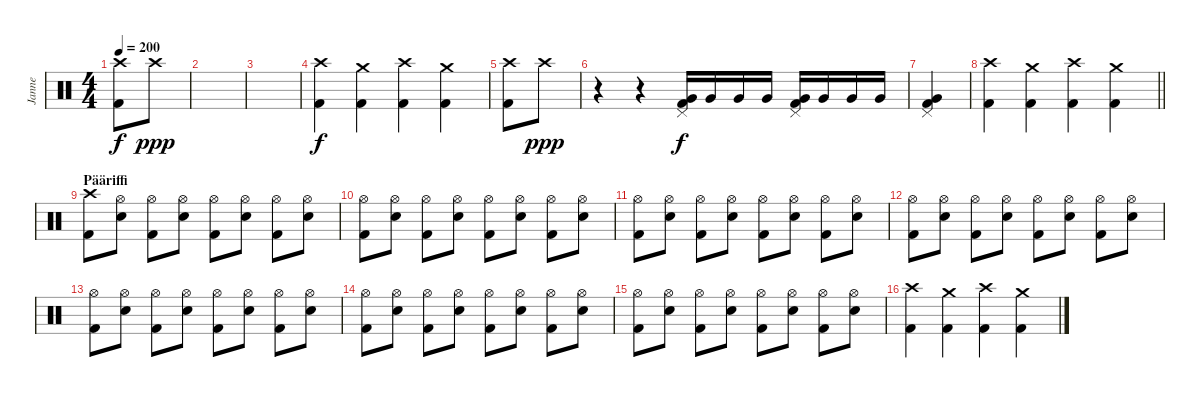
\track ("Janne" "Janne") {instrument percussion}
\staff {score}
\articulation defaults
\ts (4 4)
\tempo 200
\clef neutral
\ks c
("Crash high (hit)" "Kick (hit) 2").8{dy f} "Crash high (hit)".8{dy ppp} |
|
|
("Crash high (hit)" "Kick (hit) 2").4{dy f} ("Crash medium (hit)" "Kick (hit) 2").4 ("Crash high (hit)" "Kick (hit) 2").4 ("Crash medium (hit)" "Kick (hit) 2").4 |
("Crash high (hit)" "Kick (hit) 2").8 "Crash high (hit)".8{dy ppp} |
r.4 r.4 ("Pedal Hi-Hat (hit)" "Very Low Tom (hit)" "Kick (hit) 2").16{dy f} "Very Low Tom (hit)".16 "Very Low Tom (hit)".16 "Very Low Tom (hit)".16 ("Pedal Hi-Hat (hit)" "Very Low Tom (hit)" "Kick (hit) 2").16 "Very Low Tom (hit)".16 "Very Low Tom (hit)".16 "Very Low Tom (hit)".16 |
("Pedal Hi-Hat (hit)" "Very Low Tom (hit)" "Kick (hit) 2").4 |
\barLineRight lightlight
("Crash high (hit)" "Kick (hit) 2").4 ("Crash medium (hit)" "Kick (hit) 2").4 ("Crash high (hit)" "Kick (hit) 2").4 ("Crash medium (hit)" "Kick (hit) 2").4 |
\section ("" "Pääriffi")
("Crash high (hit)" "Kick (hit) 2").8 ("Hi-Hat (open)" "Electric Snare (hit)").8 ("Hi-Hat (open)" "Kick (hit) 2").8 ("Hi-Hat (open)" "Electric Snare (hit)").8 ("Hi-Hat (open)" "Kick (hit) 2").8 ("Hi-Hat (open)" "Electric Snare (hit)").8 ("Hi-Hat (open)" "Kick (hit) 2").8 ("Hi-Hat (open)" "Electric Snare (hit)").8 |
("Hi-Hat (open)" "Kick (hit) 2").8 ("Hi-Hat (open)" "Electric Snare (hit)").8 ("Hi-Hat (open)" "Kick (hit) 2").8 ("Hi-Hat (open)" "Electric Snare (hit)").8 ("Hi-Hat (open)" "Kick (hit) 2").8 ("Hi-Hat (open)" "Electric Snare (hit)").8 ("Hi-Hat (open)" "Kick (hit) 2").8 ("Hi-Hat (open)" "Electric Snare (hit)").8 |
("Hi-Hat (open)" "Kick (hit) 2").8 ("Hi-Hat (open)" "Electric Snare (hit)").8 ("Hi-Hat (open)" "Kick (hit) 2").8 ("Hi-Hat (open)" "Electric Snare (hit)").8 ("Hi-Hat (open)" "Kick (hit) 2").8 ("Hi-Hat (open)" "Electric Snare (hit)").8 ("Hi-Hat (open)" "Kick (hit) 2").8 ("Hi-Hat (open)" "Electric Snare (hit)").8 |
("Hi-Hat (open)" "Kick (hit) 2").8 ("Hi-Hat (open)" "Electric Snare (hit)").8 ("Hi-Hat (open)" "Kick (hit) 2").8 ("Hi-Hat (open)" "Electric Snare (hit)").8 ("Hi-Hat (open)" "Kick (hit) 2").8 ("Hi-Hat (open)" "Electric Snare (hit)").8 ("Hi-Hat (open)" "Kick (hit) 2").8 ("Hi-Hat (open)" "Electric Snare (hit)").8 |
("Hi-Hat (open)" "Kick (hit) 2").8 ("Hi-Hat (open)" "Electric Snare (hit)").8 ("Hi-Hat (open)" "Kick (hit) 2").8 ("Hi-Hat (open)" "Electric Snare (hit)").8 ("Hi-Hat (open)" "Kick (hit) 2").8 ("Hi-Hat (open)" "Electric Snare (hit)").8 ("Hi-Hat (open)" "Kick (hit) 2").8 ("Hi-Hat (open)" "Electric Snare (hit)").8 |
("Hi-Hat (open)" "Kick (hit) 2").8 ("Hi-Hat (open)" "Electric Snare (hit)").8 ("Hi-Hat (open)" "Kick (hit) 2").8 ("Hi-Hat (open)" "Electric Snare (hit)").8 ("Hi-Hat (open)" "Kick (hit) 2").8 ("Hi-Hat (open)" "Electric Snare (hit)").8 ("Hi-Hat (open)" "Kick (hit) 2").8 ("Hi-Hat (open)" "Electric Snare (hit)").8 |
("Hi-Hat (open)" "Kick (hit) 2").8 ("Hi-Hat (open)" "Electric Snare (hit)").8 ("Hi-Hat (open)" "Kick (hit) 2").8 ("Hi-Hat (open)" "Electric Snare (hit)").8 ("Hi-Hat (open)" "Kick (hit) 2").8 ("Hi-Hat (open)" "Electric Snare (hit)").8 ("Hi-Hat (open)" "Kick (hit) 2").8 ("Hi-Hat (open)" "Electric Snare (hit)").8 |
("Crash high (hit)" "Kick (hit) 2").4 ("Crash medium (hit)" "Kick (hit) 2").4 ("Crash high (hit)" "Kick (hit) 2").4 ("Crash medium (hit)" "Kick (hit) 2").4
